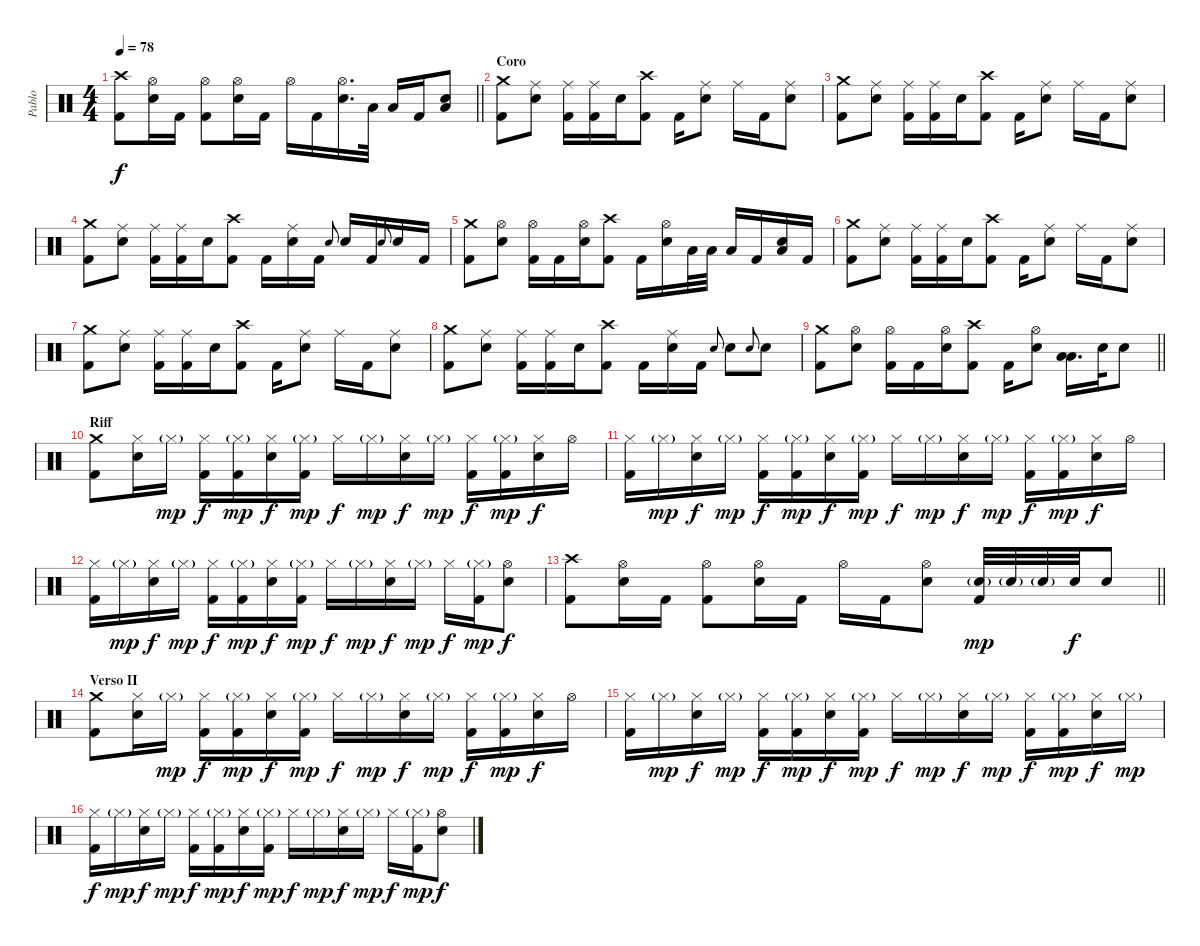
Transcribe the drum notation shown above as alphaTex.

\track ("Pablo" "Pablo") {instrument percussion}
\staff
\articulation defaults
\ts (4 4)
\tempo 78
\clef neutral
\barLineRight lightlight
\ks c
("Crash high (hit)" "Kick (hit) 2").8{dy f} ("Hi-Hat (open)" "Electric Snare (hit)").16 "Kick (hit) 2".16 ("Hi-Hat (open)" "Kick (hit) 2").8 ("Hi-Hat (open)" "Electric Snare (hit)").16 "Kick (hit) 2".16 "Hi-Hat (open)".16 "Kick (hit) 2".16 ("Hi-Hat (open)" "Electric Snare (hit)").16{d} "Low Tom (hit)".32 "Low Tom (hit)".16 "Kick (hit) 2".16 ("Electric Snare (hit)" "Low Floor Tom (hit)").8 |
\section ("" "Coro")
("Crash medium (hit)" "Kick (hit) 2").8 ("Ride (middle)" "Electric Snare (hit)").8 ("Ride (middle)" "Kick (hit) 2").16 ("Ride (middle)" "Kick (hit) 2").16 "Electric Snare (hit)".16 ("Crash high (hit)" "Kick (hit) 2").8 "Kick (hit) 2".16 ("Ride (middle)" "Electric Snare (hit)").8 "Ride (middle)".16 "Kick (hit) 2".16 ("Ride (middle)" "Electric Snare (hit)").8 |
("Crash medium (hit)" "Kick (hit) 2").8 ("Ride (middle)" "Electric Snare (hit)").8 ("Ride (middle)" "Kick (hit) 2").16 ("Ride (middle)" "Kick (hit) 2").16 "Electric Snare (hit)".16 ("Crash high (hit)" "Kick (hit) 2").8 "Kick (hit) 2".16 ("Ride (middle)" "Electric Snare (hit)").8 "Ride (middle)".16 "Kick (hit) 2".16 ("Ride (middle)" "Electric Snare (hit)").8 |
("Crash medium (hit)" "Kick (hit) 2").8 ("Ride (middle)" "Electric Snare (hit)").8 ("Ride (middle)" "Kick (hit) 2").16 ("Ride (middle)" "Kick (hit) 2").16 "Electric Snare (hit)".16 ("Crash high (hit)" "Kick (hit) 2").8 "Kick (hit) 2".16 ("Ride (middle)" "Electric Snare (hit)").16 "Kick (hit) 2".16 "Electric Snare (hit)".8{gr onbeat} "Electric Snare (hit)".16 "Kick (hit) 2".16 "Electric Snare (hit)".8{gr onbeat} "Electric Snare (hit)".16 "Kick (hit) 2".16 |
("Crash medium (hit)" "Kick (hit) 2").8 ("Hi-Hat (open)" "Electric Snare (hit)").8 ("Hi-Hat (open)" "Kick (hit) 2").16 "Kick (hit) 2".16 ("Hi-Hat (open)" "Electric Snare (hit)").16 ("Crash high (hit)" "Kick (hit) 2").8 "Kick (hit) 2".16 ("Hi-Hat (open)" "Electric Snare (hit)").16 "Low Tom (hit)".32 "Low Tom (hit)".32 "Low Floor Tom (hit)".16 "Kick (hit) 2".16 ("Electric Snare (hit)" "Low Floor Tom (hit)").16 "Kick (hit) 2".16 |
("Crash medium (hit)" "Kick (hit) 2").8 ("Ride (middle)" "Electric Snare (hit)").8 ("Ride (middle)" "Kick (hit) 2").16 ("Ride (middle)" "Kick (hit) 2").16 "Electric Snare (hit)".16 ("Crash high (hit)" "Kick (hit) 2").8 "Kick (hit) 2".16 ("Ride (middle)" "Electric Snare (hit)").8 "Ride (middle)".16 "Kick (hit) 2".16 ("Ride (middle)" "Electric Snare (hit)").8 |
("Crash medium (hit)" "Kick (hit) 2").8 ("Ride (middle)" "Electric Snare (hit)").8 ("Ride (middle)" "Kick (hit) 2").16 ("Ride (middle)" "Kick (hit) 2").16 "Electric Snare (hit)".16 ("Crash high (hit)" "Kick (hit) 2").8 "Kick (hit) 2".16 ("Ride (middle)" "Electric Snare (hit)").8 "Ride (middle)".16 "Kick (hit) 2".16 ("Ride (middle)" "Electric Snare (hit)").8 |
("Crash medium (hit)" "Kick (hit) 2").8 ("Ride (middle)" "Electric Snare (hit)").8 ("Ride (middle)" "Kick (hit) 2").16 ("Ride (middle)" "Kick (hit) 2").16 "Electric Snare (hit)".16 ("Crash high (hit)" "Kick (hit) 2").8 "Kick (hit) 2".16 ("Ride (middle)" "Electric Snare (hit)").16 "Kick (hit) 2".16 "Electric Snare (hit)".8{gr onbeat} "Electric Snare (hit)".8 "Electric Snare (hit)".8{gr onbeat} "Electric Snare (hit)".8 |
\barLineRight lightlight
("Crash medium (hit)" "Kick (hit) 2").8 ("Hi-Hat (open)" "Electric Snare (hit)").8 ("Hi-Hat (open)" "Kick (hit) 2").16 "Kick (hit) 2".16 ("Hi-Hat (open)" "Electric Snare (hit)").16 ("Crash high (hit)" "Kick (hit) 2").8 "Kick (hit) 2".16 ("Hi-Hat (open)" "Electric Snare (hit)").8 ("Low Tom (hit)" "Low Floor Tom (hit)").16{d} "Electric Snare (hit)".32 "Electric Snare (hit)".8 |
\section ("" "Riff")
("Crash medium (hit)" "Kick (hit) 2").8 ("Hi-Hat (closed)" "Electric Snare (hit)").16 "Hi-Hat (closed)"{g}.16{dy mp} ("Hi-Hat (closed)" "Kick (hit) 2").16{dy f} ("Hi-Hat (closed)"{g} "Kick (hit) 2").16{dy mp} ("Hi-Hat (closed)" "Electric Snare (hit)").16{dy f} ("Hi-Hat (closed)"{g} "Kick (hit) 2").16{dy mp} "Hi-Hat (closed)".16{dy f} "Hi-Hat (closed)"{g}.16{dy mp} ("Hi-Hat (closed)" "Electric Snare (hit)").16{dy f} "Hi-Hat (closed)"{g}.16{dy mp} ("Hi-Hat (closed)" "Kick (hit) 2").16{dy f} ("Hi-Hat (closed)"{g} "Kick (hit) 2").16{dy mp} ("Hi-Hat (closed)" "Electric Snare (hit)").16{dy f} "Hi-Hat (open)".16 |
("Hi-Hat (closed)" "Kick (hit) 2").16 "Hi-Hat (closed)"{g}.16{dy mp} ("Hi-Hat (closed)" "Electric Snare (hit)").16{dy f} "Hi-Hat (closed)"{g}.16{dy mp} ("Hi-Hat (closed)" "Kick (hit) 2").16{dy f} ("Hi-Hat (closed)"{g} "Kick (hit) 2").16{dy mp} ("Hi-Hat (closed)" "Electric Snare (hit)").16{dy f} ("Hi-Hat (closed)"{g} "Kick (hit) 2").16{dy mp} "Hi-Hat (closed)".16{dy f} "Hi-Hat (closed)"{g}.16{dy mp} ("Hi-Hat (closed)" "Electric Snare (hit)").16{dy f} "Hi-Hat (closed)"{g}.16{dy mp} ("Hi-Hat (closed)" "Kick (hit) 2").16{dy f} ("Hi-Hat (closed)"{g} "Kick (hit) 2").16{dy mp} ("Hi-Hat (closed)" "Electric Snare (hit)").16{dy f} "Hi-Hat (open)".16 |
("Hi-Hat (closed)" "Kick (hit) 2").16 "Hi-Hat (closed)"{g}.16{dy mp} ("Hi-Hat (closed)" "Electric Snare (hit)").16{dy f} "Hi-Hat (closed)"{g}.16{dy mp} ("Hi-Hat (closed)" "Kick (hit) 2").16{dy f} ("Hi-Hat (closed)"{g} "Kick (hit) 2").16{dy mp} ("Hi-Hat (closed)" "Electric Snare (hit)").16{dy f} ("Hi-Hat (closed)"{g} "Kick (hit) 2").16{dy mp} "Hi-Hat (closed)".16{dy f} "Hi-Hat (closed)"{g}.16{dy mp} ("Hi-Hat (closed)" "Electric Snare (hit)").16{dy f} "Hi-Hat (closed)"{g}.16{dy mp} "Hi-Hat (closed)".16{dy f} ("Hi-Hat (closed)"{g} "Kick (hit) 2").16{dy mp} ("Hi-Hat (open)" "Electric Snare (hit)").8{dy f} |
\barLineRight lightlight
("Crash high (hit)" "Kick (hit) 2").8 ("Hi-Hat (open)" "Electric Snare (hit)").16 "Kick (hit) 2".16 ("Hi-Hat (open)" "Kick (hit) 2").8 ("Hi-Hat (open)" "Electric Snare (hit)").16 "Kick (hit) 2".16 "Hi-Hat (open)".16 "Kick (hit) 2".16 ("Hi-Hat (open)" "Electric Snare (hit)").8 ("Electric Snare (hit)"{g} "Kick (hit) 2").32{dy mp} "Electric Snare (hit)"{g}.32 "Electric Snare (hit)"{g}.32 "Electric Snare (hit)".32{dy f} "Electric Snare (hit)".8 |
\section ("" "Verso II")
("Crash medium (hit)" "Kick (hit) 2").8 ("Hi-Hat (closed)" "Electric Snare (hit)").16 "Hi-Hat (closed)"{g}.16{dy mp} ("Hi-Hat (closed)" "Kick (hit) 2").16{dy f} ("Hi-Hat (closed)"{g} "Kick (hit) 2").16{dy mp} ("Hi-Hat (closed)" "Electric Snare (hit)").16{dy f} ("Hi-Hat (closed)"{g} "Kick (hit) 2").16{dy mp} "Hi-Hat (closed)".16{dy f} "Hi-Hat (closed)"{g}.16{dy mp} ("Hi-Hat (closed)" "Electric Snare (hit)").16{dy f} "Hi-Hat (closed)"{g}.16{dy mp} ("Hi-Hat (closed)" "Kick (hit) 2").16{dy f} ("Hi-Hat (closed)"{g} "Kick (hit) 2").16{dy mp} ("Hi-Hat (closed)" "Electric Snare (hit)").16{dy f} "Hi-Hat (open)".16 |
("Hi-Hat (closed)" "Kick (hit) 2").16 "Hi-Hat (closed)"{g}.16{dy mp} ("Hi-Hat (closed)" "Electric Snare (hit)").16{dy f} "Hi-Hat (closed)"{g}.16{dy mp} ("Hi-Hat (closed)" "Kick (hit) 2").16{dy f} ("Hi-Hat (closed)"{g} "Kick (hit) 2").16{dy mp} ("Hi-Hat (closed)" "Electric Snare (hit)").16{dy f} ("Hi-Hat (closed)"{g} "Kick (hit) 2").16{dy mp} "Hi-Hat (closed)".16{dy f} "Hi-Hat (closed)"{g}.16{dy mp} ("Hi-Hat (closed)" "Electric Snare (hit)").16{dy f} "Hi-Hat (closed)"{g}.16{dy mp} ("Hi-Hat (closed)" "Kick (hit) 2").16{dy f} ("Hi-Hat (closed)"{g} "Kick (hit) 2").16{dy mp} ("Hi-Hat (closed)" "Electric Snare (hit)").16{dy f} "Hi-Hat (closed)"{g}.16{dy mp} |
("Hi-Hat (closed)" "Kick (hit) 2").16{dy f} "Hi-Hat (closed)"{g}.16{dy mp} ("Hi-Hat (closed)" "Electric Snare (hit)").16{dy f} "Hi-Hat (closed)"{g}.16{dy mp} ("Hi-Hat (closed)" "Kick (hit) 2").16{dy f} ("Hi-Hat (closed)"{g} "Kick (hit) 2").16{dy mp} ("Hi-Hat (closed)" "Electric Snare (hit)").16{dy f} ("Hi-Hat (closed)"{g} "Kick (hit) 2").16{dy mp} "Hi-Hat (closed)".16{dy f} "Hi-Hat (closed)"{g}.16{dy mp} ("Hi-Hat (closed)" "Electric Snare (hit)").16{dy f} "Hi-Hat (closed)"{g}.16{dy mp} "Hi-Hat (closed)".16{dy f} ("Hi-Hat (closed)"{g} "Kick (hit) 2").16{dy mp} ("Hi-Hat (open)" "Electric Snare (hit)").8{dy f}
